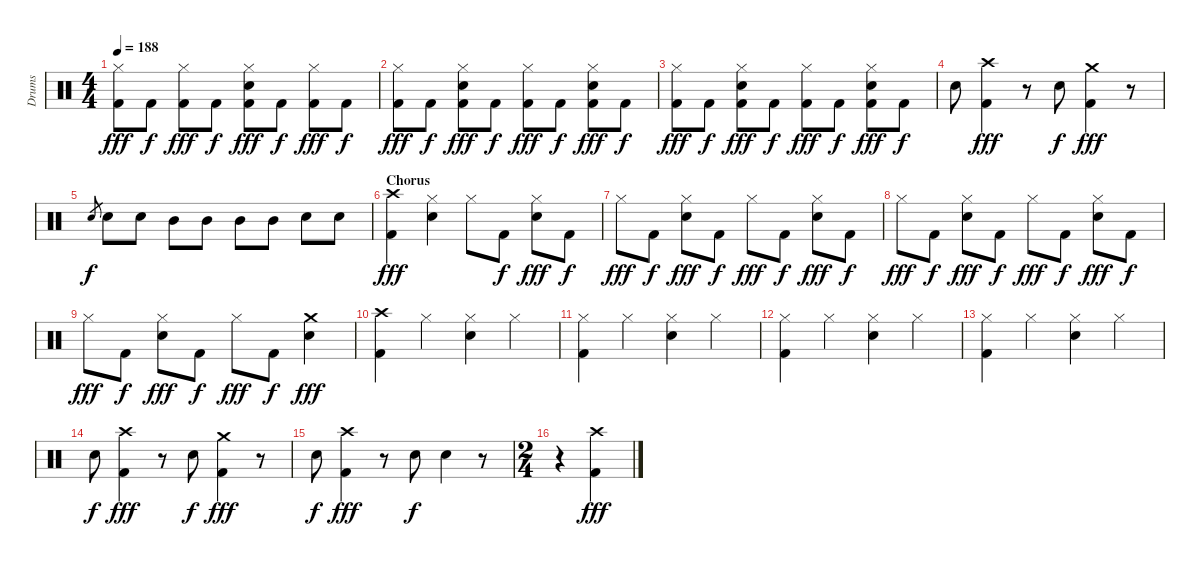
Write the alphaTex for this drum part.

\track ("Drums" "Drums") {instrument percussion}
\staff {score}
\articulation defaults
\ts (4 4)
\tempo 188
\clef neutral
\ks c
("Hi-Hat (closed)" "Kick (hit) 2").8{dy fff} "Kick (hit) 2".8{dy f} ("Hi-Hat (closed)" "Kick (hit) 2").8{dy fff} "Kick (hit) 2".8{dy f} ("Hi-Hat (closed)" "Snare (hit) 2" "Kick (hit) 2").8{dy fff} "Kick (hit) 2".8{dy f} ("Hi-Hat (closed)" "Kick (hit) 2").8{dy fff} "Kick (hit) 2".8{dy f} |
("Hi-Hat (closed)" "Kick (hit) 2").8{dy fff} "Kick (hit) 2".8{dy f} ("Hi-Hat (closed)" "Snare (hit) 2" "Kick (hit) 2").8{dy fff} "Kick (hit) 2".8{dy f} ("Hi-Hat (closed)" "Kick (hit) 2").8{dy fff} "Kick (hit) 2".8{dy f} ("Hi-Hat (closed)" "Snare (hit) 2" "Kick (hit) 2").8{dy fff} "Kick (hit) 2".8{dy f} |
("Hi-Hat (closed)" "Kick (hit) 2").8{dy fff} "Kick (hit) 2".8{dy f} ("Hi-Hat (closed)" "Snare (hit) 2" "Kick (hit) 2").8{dy fff} "Kick (hit) 2".8{dy f} ("Hi-Hat (closed)" "Kick (hit) 2").8{dy fff} "Kick (hit) 2".8{dy f} ("Hi-Hat (closed)" "Snare (hit) 2" "Kick (hit) 2").8{dy fff} "Kick (hit) 2".8{dy f} |
"Snare (hit) 2".8 ("Crash high (hit)" "Kick (hit) 2").4{dy fff} r.8 "Snare (hit) 2".8{dy f} ("Crash medium (hit)" "Kick (hit) 2").4{dy fff} r.8 |
"Snare (hit) 2".8{gr dy f} "Snare (hit) 2".8 "Snare (hit) 2".8 "Mid Tom (hit)".8 "Mid Tom (hit)".8 "Mid Tom (hit)".8 "Mid Tom (hit)".8 "Snare (hit) 2".8 "Snare (hit) 2".8 |
\section ("" "Chorus")
("Crash high (hit)" "Kick (hit) 2").4{dy fff} ("Hi-Hat (closed)" "Snare (hit) 2").4 "Hi-Hat (closed)".8 "Kick (hit) 2".8{dy f} ("Hi-Hat (closed)" "Snare (hit) 2").8{dy fff} "Kick (hit) 2".8{dy f} |
"Hi-Hat (closed)".8{dy fff} "Kick (hit) 2".8{dy f} ("Hi-Hat (closed)" "Snare (hit) 2").8{dy fff} "Kick (hit) 2".8{dy f} "Hi-Hat (closed)".8{dy fff} "Kick (hit) 2".8{dy f} ("Hi-Hat (closed)" "Snare (hit) 2").8{dy fff} "Kick (hit) 2".8{dy f} |
"Hi-Hat (closed)".8{dy fff} "Kick (hit) 2".8{dy f} ("Hi-Hat (closed)" "Snare (hit) 2").8{dy fff} "Kick (hit) 2".8{dy f} "Hi-Hat (closed)".8{dy fff} "Kick (hit) 2".8{dy f} ("Hi-Hat (closed)" "Snare (hit) 2").8{dy fff} "Kick (hit) 2".8{dy f} |
"Hi-Hat (closed)".8{dy fff} "Kick (hit) 2".8{dy f} ("Hi-Hat (closed)" "Snare (hit) 2").8{dy fff} "Kick (hit) 2".8{dy f} "Hi-Hat (closed)".8{dy fff} "Kick (hit) 2".8{dy f} ("Crash medium (hit)" "Snare (hit) 2").4{dy fff} |
("Crash high (hit)" "Kick (hit) 2").4 "Hi-Hat (closed)".4 ("Hi-Hat (closed)" "Snare (hit) 2").4 "Hi-Hat (closed)".4 |
("Hi-Hat (closed)" "Kick (hit) 2").4 "Hi-Hat (closed)".4 ("Hi-Hat (closed)" "Snare (hit) 2").4 "Hi-Hat (closed)".4 |
("Hi-Hat (closed)" "Kick (hit) 2").4 "Hi-Hat (closed)".4 ("Hi-Hat (closed)" "Snare (hit) 2").4 "Hi-Hat (closed)".4 |
("Hi-Hat (closed)" "Kick (hit) 2").4 "Hi-Hat (closed)".4 ("Hi-Hat (closed)" "Snare (hit) 2").4 "Hi-Hat (closed)".4 |
"Snare (hit) 2".8{dy f} ("Crash high (hit)" "Kick (hit) 2").4{dy fff} r.8 "Snare (hit) 2".8{dy f} ("Crash medium (hit)" "Kick (hit) 2").4{dy fff} r.8 |
"Snare (hit) 2".8{dy f} ("Crash high (hit)" "Kick (hit) 2").4{dy fff} r.8 "Snare (hit) 2".8{dy f} "Snare (hit) 2".4 r.8 |
\ts (2 4)
r.4 ("Crash high (hit)" "Kick (hit) 2").4{dy fff}
